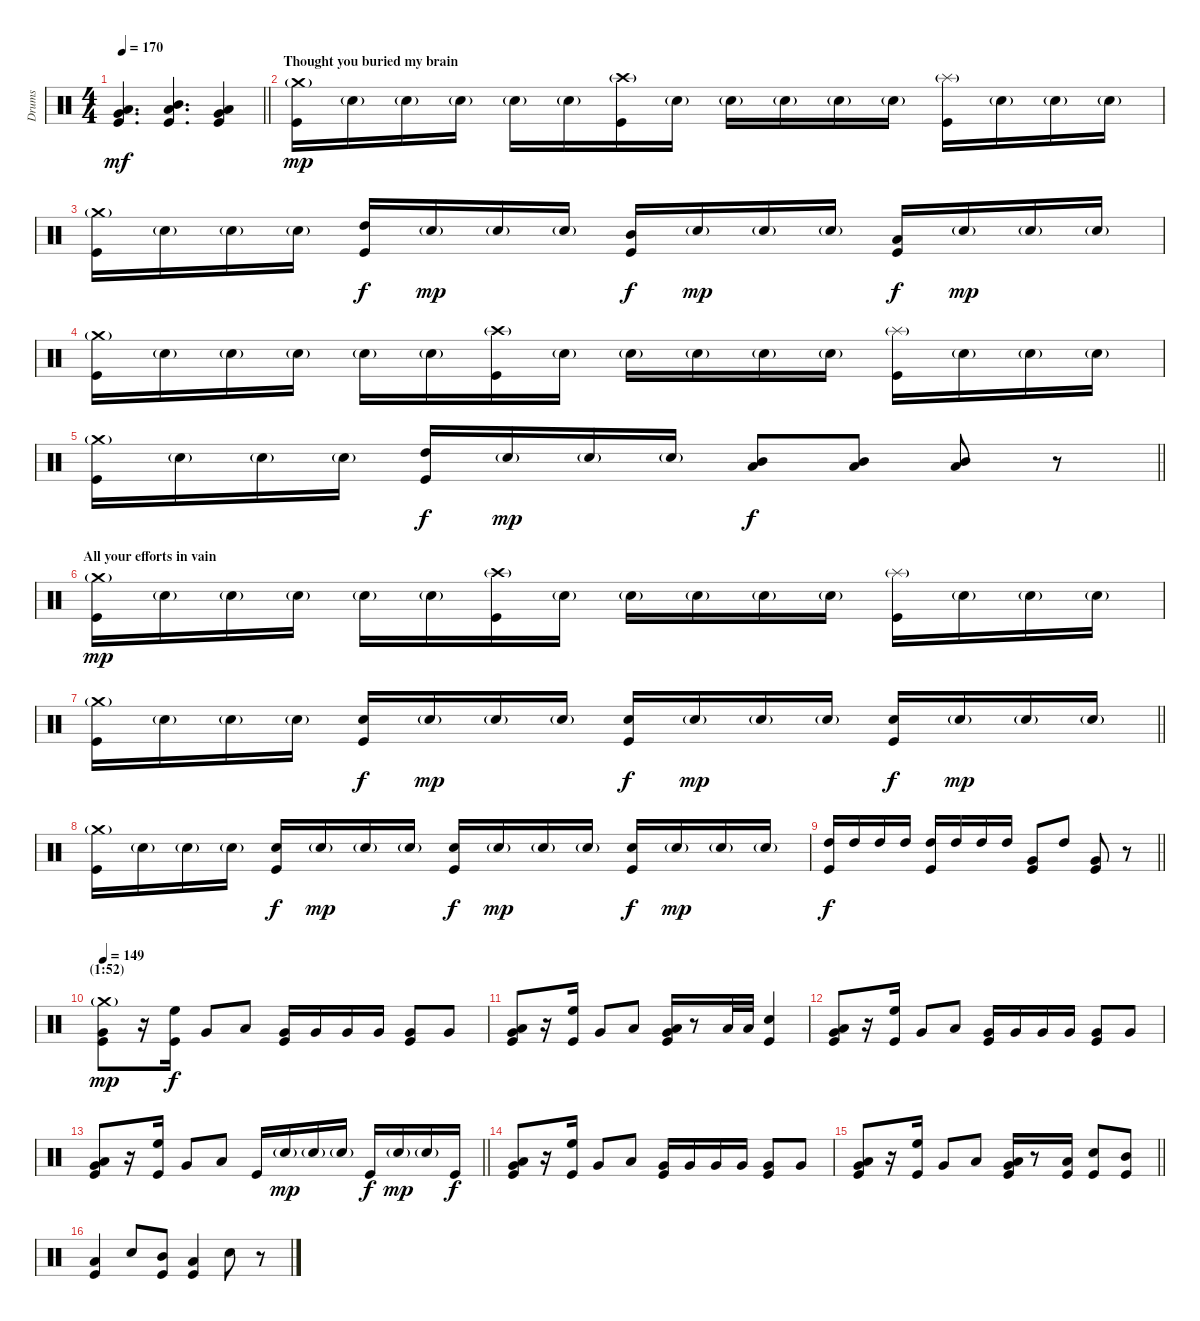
\track ("Drums" "Drums") {instrument percussion}
\staff {score}
\articulation defaults
\ts (4 4)
\tempo 170
\clef neutral
\barLineRight lightlight
\ks c
("Low Tom (hit)" "Very Low Tom (hit)" "Kick (hit)").4{d dy mf} ("Mid Tom (hit)" "Low Tom (hit)" "Kick (hit)").4{d} ("Low Tom (hit)" "Very Low Tom (hit)" "Kick (hit)").4 |
\section ("" "Thought you buried my brain ")
("Crash medium (hit)"{g} "Kick (hit)").16{dy mp} "Snare (hit) 2"{g}.16 "Snare (hit) 2"{g}.16 "Snare (hit) 2"{g}.16 "Snare (hit) 2"{g}.16 "Snare (hit) 2"{g}.16 ("Crash high (hit)"{g} "Kick (hit)").16 "Snare (hit) 2"{g}.16 "Snare (hit) 2"{g}.16 "Snare (hit) 2"{g}.16 "Snare (hit) 2"{g}.16 "Snare (hit) 2"{g}.16 ("Splash (hit)"{g} "Kick (hit)").16 "Snare (hit) 2"{g}.16 "Snare (hit) 2"{g}.16 "Snare (hit) 2"{g}.16 |
("Crash medium (hit)"{g} "Kick (hit)").16 "Snare (hit) 2"{g}.16 "Snare (hit) 2"{g}.16 "Snare (hit) 2"{g}.16 ("High Tom (hit)" "Kick (hit)").16{dy f} "Snare (hit) 2"{g}.16{dy mp} "Snare (hit) 2"{g}.16 "Snare (hit) 2"{g}.16 ("Mid Tom (hit)" "Kick (hit)").16{dy f} "Snare (hit) 2"{g}.16{dy mp} "Snare (hit) 2"{g}.16 "Snare (hit) 2"{g}.16 ("Low Tom (hit)" "Kick (hit)").16{dy f} "Snare (hit) 2"{g}.16{dy mp} "Snare (hit) 2"{g}.16 "Snare (hit) 2"{g}.16 |
("Crash medium (hit)"{g} "Kick (hit)").16 "Snare (hit) 2"{g}.16 "Snare (hit) 2"{g}.16 "Snare (hit) 2"{g}.16 "Snare (hit) 2"{g}.16 "Snare (hit) 2"{g}.16 ("Crash high (hit)"{g} "Kick (hit)").16 "Snare (hit) 2"{g}.16 "Snare (hit) 2"{g}.16 "Snare (hit) 2"{g}.16 "Snare (hit) 2"{g}.16 "Snare (hit) 2"{g}.16 ("Splash (hit)"{g} "Kick (hit)").16 "Snare (hit) 2"{g}.16 "Snare (hit) 2"{g}.16 "Snare (hit) 2"{g}.16 |
\barLineRight lightlight
("Crash medium (hit)"{g} "Kick (hit)").16 "Snare (hit) 2"{g}.16 "Snare (hit) 2"{g}.16 "Snare (hit) 2"{g}.16 ("High Tom (hit)" "Kick (hit)").16{dy f} "Snare (hit) 2"{g}.16{dy mp} "Snare (hit) 2"{g}.16 "Snare (hit) 2"{g}.16 ("Mid Tom (hit)" "Low Tom (hit)").8{dy f} ("Mid Tom (hit)" "Low Tom (hit)").8 ("Mid Tom (hit)" "Low Tom (hit)").8 r.8 |
\section ("" "All your efforts in vain")
("Crash medium (hit)"{g} "Kick (hit)").16{dy mp} "Snare (hit) 2"{g}.16 "Snare (hit) 2"{g}.16 "Snare (hit) 2"{g}.16 "Snare (hit) 2"{g}.16 "Snare (hit) 2"{g}.16 ("Crash high (hit)"{g} "Kick (hit)").16 "Snare (hit) 2"{g}.16 "Snare (hit) 2"{g}.16 "Snare (hit) 2"{g}.16 "Snare (hit) 2"{g}.16 "Snare (hit) 2"{g}.16 ("Splash (hit)"{g} "Kick (hit)").16 "Snare (hit) 2"{g}.16 "Snare (hit) 2"{g}.16 "Snare (hit) 2"{g}.16 |
\barLineRight lightlight
("Crash medium (hit)"{g} "Kick (hit)").16 "Snare (hit) 2"{g}.16 "Snare (hit) 2"{g}.16 "Snare (hit) 2"{g}.16 ("Snare (hit) 2" "Kick (hit)").16{dy f} "Snare (hit) 2"{g}.16{dy mp} "Snare (hit) 2"{g}.16 "Snare (hit) 2"{g}.16 ("Snare (hit) 2" "Kick (hit)").16{dy f} "Snare (hit) 2"{g}.16{dy mp} "Snare (hit) 2"{g}.16 "Snare (hit) 2"{g}.16 ("Snare (hit) 2" "Kick (hit)").16{dy f} "Snare (hit) 2"{g}.16{dy mp} "Snare (hit) 2"{g}.16 "Snare (hit) 2"{g}.16 |
("Crash medium (hit)"{g} "Kick (hit)").16 "Snare (hit) 2"{g}.16 "Snare (hit) 2"{g}.16 "Snare (hit) 2"{g}.16 ("Snare (hit) 2" "Kick (hit)").16{dy f} "Snare (hit) 2"{g}.16{dy mp} "Snare (hit) 2"{g}.16 "Snare (hit) 2"{g}.16 ("Snare (hit) 2" "Kick (hit)").16{dy f} "Snare (hit) 2"{g}.16{dy mp} "Snare (hit) 2"{g}.16 "Snare (hit) 2"{g}.16 ("Snare (hit) 2" "Kick (hit)").16{dy f} "Snare (hit) 2"{g}.16{dy mp} "Snare (hit) 2"{g}.16 "Snare (hit) 2"{g}.16 |
\barLineRight lightlight
("High Tom (hit)" "Kick (hit)").16{dy f} "High Tom (hit)".16 "High Tom (hit)".16 "High Tom (hit)".16 ("High Tom (hit)" "Kick (hit)").16 "High Tom (hit)".16 "High Tom (hit)".16 "High Tom (hit)".16 ("Very Low Tom (hit)" "Kick (hit)").8 "High Tom (hit)".8 ("Very Low Tom (hit)" "Kick (hit)").8 r.8 |
\section ("" "(1:52)")
\tempo 149
("Crash medium (hit)"{g} "Very Low Tom (hit)" "Kick (hit)").8{dy mp} r.16 ("High Floor Tom (hit)" "Kick (hit)").16{dy f} "Very Low Tom (hit)".8 "Low Tom (hit)".8 ("Very Low Tom (hit)" "Kick (hit)").16 "Very Low Tom (hit)".16 "Very Low Tom (hit)".16 "Very Low Tom (hit)".16 ("Very Low Tom (hit)" "Kick (hit)").8 "Very Low Tom (hit)".8 |
("Very Low Tom (hit)" "Low Tom (hit)" "Kick (hit)").8 r.16 ("High Floor Tom (hit)" "Kick (hit)").16 "Very Low Tom (hit)".8 "Low Tom (hit)".8 ("Very Low Tom (hit)" "Low Tom (hit)" "Kick (hit)").16 r.8 "Low Tom (hit)".32 "Low Tom (hit)".32 ("Snare (hit) 2" "Kick (hit)").4 |
("Very Low Tom (hit)" "Low Tom (hit)" "Kick (hit)").8 r.16 ("High Floor Tom (hit)" "Kick (hit)").16 "Very Low Tom (hit)".8 "Low Tom (hit)".8 ("Very Low Tom (hit)" "Kick (hit)").16 "Very Low Tom (hit)".16 "Very Low Tom (hit)".16 "Very Low Tom (hit)".16 ("Very Low Tom (hit)" "Kick (hit)").8 "Very Low Tom (hit)".8 |
\barLineRight lightlight
("Very Low Tom (hit)" "Low Tom (hit)" "Kick (hit)").8 r.16 ("High Floor Tom (hit)" "Kick (hit)").16 "Very Low Tom (hit)".8 "Low Tom (hit)".8 "Kick (hit)".16 "Snare (hit) 2"{g}.16{dy mp} "Snare (hit) 2"{g}.16 "Snare (hit) 2"{g}.16 "Kick (hit)".16{dy f} "Snare (hit) 2"{g}.16{dy mp} "Snare (hit) 2"{g}.16 "Kick (hit)".16{dy f} |
("Very Low Tom (hit)" "Low Tom (hit)" "Kick (hit)").8 r.16 ("High Floor Tom (hit)" "Kick (hit)").16 "Very Low Tom (hit)".8 "Low Tom (hit)".8 ("Very Low Tom (hit)" "Kick (hit)").16 "Very Low Tom (hit)".16 "Very Low Tom (hit)".16 "Very Low Tom (hit)".16 ("Very Low Tom (hit)" "Kick (hit)").8 "Very Low Tom (hit)".8 |
\barLineRight lightlight
("Very Low Tom (hit)" "Low Tom (hit)" "Kick (hit)").8 r.16 ("High Floor Tom (hit)" "Kick (hit)").16 "Very Low Tom (hit)".8 "Low Tom (hit)".8 ("Very Low Tom (hit)" "Low Tom (hit)" "Kick (hit)").16 r.8 ("Low Tom (hit)" "Kick (hit)").16 ("Snare (hit) 2" "Kick (hit)").8 ("Mid Tom (hit)" "Kick (hit)").8 |
("Low Tom (hit)" "Kick (hit)").4 "Snare (hit) 2".8 ("Mid Tom (hit)" "Kick (hit)").8 ("Low Tom (hit)" "Kick (hit)").4 "Snare (hit) 2".8 r.8
